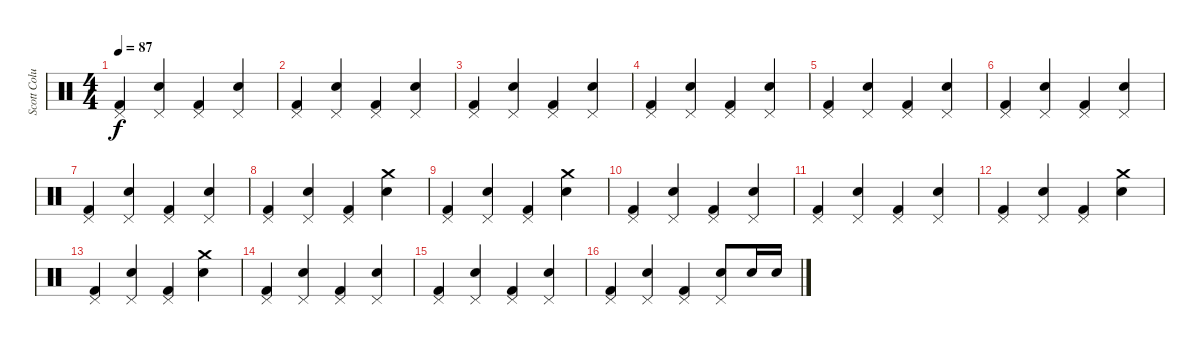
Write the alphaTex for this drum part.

\track ("Scott Columbus" "Scott Colu") {instrument percussion}
\staff {score}
\articulation defaults
\ts (4 4)
\tempo 87
\clef neutral
\ks c
("Pedal Hi-Hat (hit)" "Kick (hit) 2").4{dy f} ("Snare (hit) 2" "Pedal Hi-Hat (hit)").4 ("Pedal Hi-Hat (hit)" "Kick (hit) 2").4 ("Snare (hit) 2" "Pedal Hi-Hat (hit)").4 |
("Pedal Hi-Hat (hit)" "Kick (hit) 2").4 ("Snare (hit) 2" "Pedal Hi-Hat (hit)").4 ("Pedal Hi-Hat (hit)" "Kick (hit) 2").4 ("Snare (hit) 2" "Pedal Hi-Hat (hit)").4 |
("Pedal Hi-Hat (hit)" "Kick (hit) 2").4 ("Snare (hit) 2" "Pedal Hi-Hat (hit)").4 ("Pedal Hi-Hat (hit)" "Kick (hit) 2").4 ("Snare (hit) 2" "Pedal Hi-Hat (hit)").4 |
("Pedal Hi-Hat (hit)" "Kick (hit) 2").4 ("Snare (hit) 2" "Pedal Hi-Hat (hit)").4 ("Pedal Hi-Hat (hit)" "Kick (hit) 2").4 ("Snare (hit) 2" "Pedal Hi-Hat (hit)").4 |
("Pedal Hi-Hat (hit)" "Kick (hit) 2").4 ("Snare (hit) 2" "Pedal Hi-Hat (hit)").4 ("Pedal Hi-Hat (hit)" "Kick (hit) 2").4 ("Snare (hit) 2" "Pedal Hi-Hat (hit)").4 |
("Pedal Hi-Hat (hit)" "Kick (hit) 2").4 ("Snare (hit) 2" "Pedal Hi-Hat (hit)").4 ("Pedal Hi-Hat (hit)" "Kick (hit) 2").4 ("Snare (hit) 2" "Pedal Hi-Hat (hit)").4 |
("Pedal Hi-Hat (hit)" "Kick (hit) 2").4 ("Snare (hit) 2" "Pedal Hi-Hat (hit)").4 ("Pedal Hi-Hat (hit)" "Kick (hit) 2").4 ("Snare (hit) 2" "Pedal Hi-Hat (hit)").4 |
("Pedal Hi-Hat (hit)" "Kick (hit) 2").4 ("Snare (hit) 2" "Pedal Hi-Hat (hit)").4 ("Pedal Hi-Hat (hit)" "Kick (hit) 2").4 ("Snare (hit) 2" "Crash medium (hit)").4 |
("Pedal Hi-Hat (hit)" "Kick (hit) 2").4 ("Snare (hit) 2" "Pedal Hi-Hat (hit)").4 ("Pedal Hi-Hat (hit)" "Kick (hit) 2").4 ("Snare (hit) 2" "Crash medium (hit)").4 |
("Pedal Hi-Hat (hit)" "Kick (hit) 2").4 ("Snare (hit) 2" "Pedal Hi-Hat (hit)").4 ("Pedal Hi-Hat (hit)" "Kick (hit) 2").4 ("Snare (hit) 2" "Pedal Hi-Hat (hit)").4 |
("Pedal Hi-Hat (hit)" "Kick (hit) 2").4 ("Snare (hit) 2" "Pedal Hi-Hat (hit)").4 ("Pedal Hi-Hat (hit)" "Kick (hit) 2").4 ("Snare (hit) 2" "Pedal Hi-Hat (hit)").4 |
("Pedal Hi-Hat (hit)" "Kick (hit) 2").4 ("Snare (hit) 2" "Pedal Hi-Hat (hit)").4 ("Pedal Hi-Hat (hit)" "Kick (hit) 2").4 ("Snare (hit) 2" "Crash medium (hit)").4 |
("Pedal Hi-Hat (hit)" "Kick (hit) 2").4 ("Snare (hit) 2" "Pedal Hi-Hat (hit)").4 ("Pedal Hi-Hat (hit)" "Kick (hit) 2").4 ("Snare (hit) 2" "Crash medium (hit)").4 |
("Pedal Hi-Hat (hit)" "Kick (hit) 2").4 ("Snare (hit) 2" "Pedal Hi-Hat (hit)").4 ("Pedal Hi-Hat (hit)" "Kick (hit) 2").4 ("Snare (hit) 2" "Pedal Hi-Hat (hit)").4 |
("Pedal Hi-Hat (hit)" "Kick (hit) 2").4 ("Snare (hit) 2" "Pedal Hi-Hat (hit)").4 ("Pedal Hi-Hat (hit)" "Kick (hit) 2").4 ("Snare (hit) 2" "Pedal Hi-Hat (hit)").4 |
("Pedal Hi-Hat (hit)" "Kick (hit) 2").4 ("Snare (hit) 2" "Pedal Hi-Hat (hit)").4 ("Pedal Hi-Hat (hit)" "Kick (hit) 2").4 ("Snare (hit) 2" "Pedal Hi-Hat (hit)").8 "Snare (hit) 2".16 "Snare (hit) 2".16
